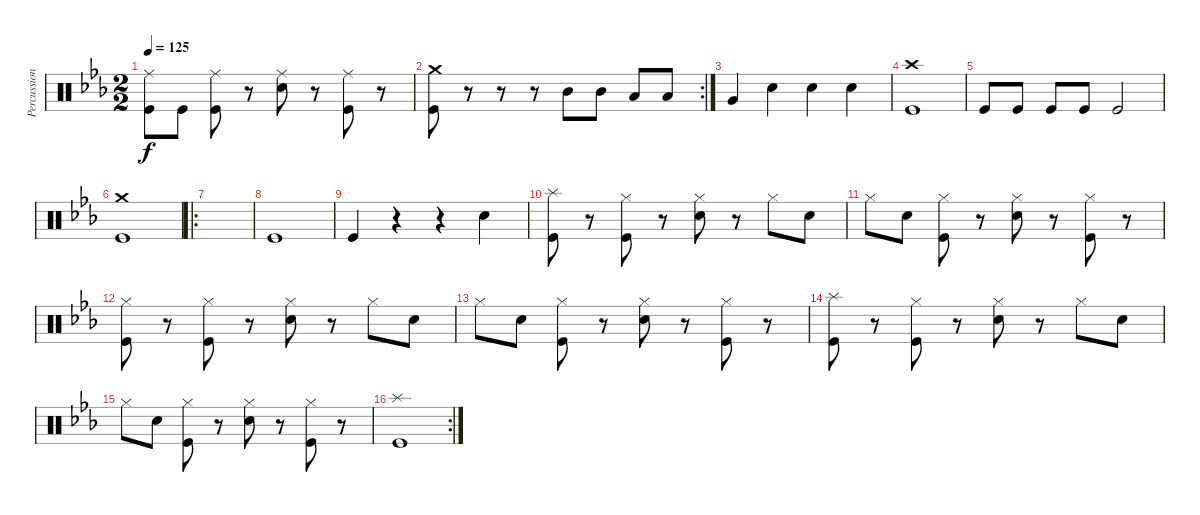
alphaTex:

\track ("Percussion" "Percussion") {instrument percussion}
\staff {score}
\articulation defaults
\ts (2 2)
\tempo 125
\clef neutral
\ks cminor
("Ride (middle)" "Kick (hit)").8{dy f} "Kick (hit)".8 ("Ride (middle)" "Kick (hit)").8 r.8 ("Ride (middle)" "Snare (hit) 2").8 r.8 ("Ride (middle)" "Kick (hit)").8 r.8 |
\rc 2
("Crash medium (hit)" "Kick (hit)").8 r.8 r.8 r.8 "Mid Tom (hit)".8 "Mid Tom (hit)".8 "Low Tom (hit)".8 "Low Tom (hit)".8 |
"Very Low Tom (hit)".4 "Snare (hit) 2".4 "Snare (hit) 2".4 "Snare (hit) 2".4 |
("Crash high (hit)" "Kick (hit)").1 |
"Kick (hit)".8 "Kick (hit)".8 "Kick (hit)".8 "Kick (hit)".8 "Kick (hit)".2 |
("Crash medium (hit)" "Kick (hit)").1 |
\ro
|
"Kick (hit)".1 |
"Kick (hit)".4 r.4 r.4 "Snare (hit) 2".4 |
("Splash (hit)" "Kick (hit)").8 r.8 ("Hi-Hat (closed)" "Kick (hit)").8 r.8 ("Hi-Hat (closed)" "Snare (hit) 2").8 r.8 "Hi-Hat (closed)".8 "Snare (hit) 2".8 |
"Hi-Hat (closed)".8 "Snare (hit) 2".8 ("Hi-Hat (closed)" "Kick (hit)").8 r.8 ("Hi-Hat (closed)" "Snare (hit) 2").8 r.8 ("Hi-Hat (closed)" "Kick (hit)").8 r.8 |
("Hi-Hat (closed)" "Kick (hit)").8 r.8 ("Hi-Hat (closed)" "Kick (hit)").8 r.8 ("Hi-Hat (closed)" "Snare (hit) 2").8 r.8 "Hi-Hat (closed)".8 "Snare (hit) 2".8 |
"Hi-Hat (closed)".8 "Snare (hit) 2".8 ("Hi-Hat (closed)" "Kick (hit)").8 r.8 ("Hi-Hat (closed)" "Snare (hit) 2").8 r.8 ("Hi-Hat (closed)" "Kick (hit)").8 r.8 |
("Splash (hit)" "Kick (hit)").8 r.8 ("Hi-Hat (closed)" "Kick (hit)").8 r.8 ("Hi-Hat (closed)" "Snare (hit) 2").8 r.8 "Hi-Hat (closed)".8 "Snare (hit) 2".8 |
"Hi-Hat (closed)".8 "Snare (hit) 2".8 ("Hi-Hat (closed)" "Kick (hit)").8 r.8 ("Hi-Hat (closed)" "Snare (hit) 2").8 r.8 ("Hi-Hat (closed)" "Kick (hit)").8 r.8 |
\rc 2
("Splash (hit)" "Kick (hit)").1
